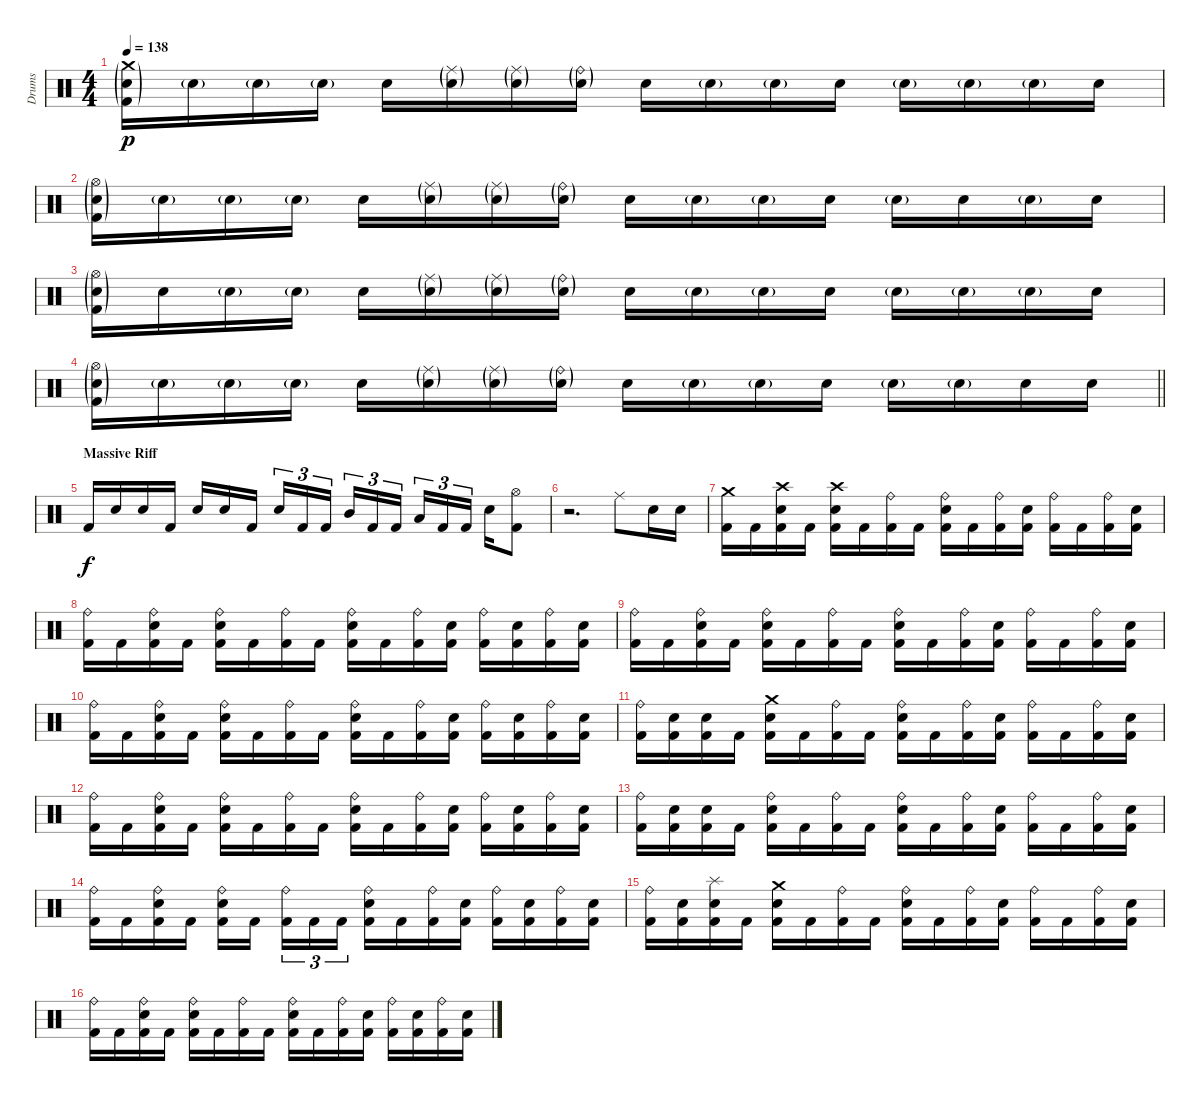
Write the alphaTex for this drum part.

\track ("Drums" "Drums") {instrument percussion}
\staff {score}
\articulation defaults
\ts (4 4)
\tempo 138
\clef neutral
\ks c
("Crash medium (hit)"{g} "Snare (hit) 2"{g} "Kick (hit) 2"{g}).16{dy p} "Snare (hit) 2"{g}.16 "Snare (hit) 2"{g}.16 "Snare (hit) 2"{g}.16 "Snare (hit) 2".16 ("Ride (middle)"{g} "Snare (hit) 2"{g}).16 ("Ride (middle)"{g} "Snare (hit) 2"{g}).16 ("Ride (bell)"{g} "Snare (hit) 2"{g}).16 "Snare (hit) 2".16 "Snare (hit) 2"{g}.16 "Snare (hit) 2"{g}.16 "Snare (hit) 2".16 "Snare (hit) 2"{g}.16 "Snare (hit) 2"{g}.16 "Snare (hit) 2"{g}.16 "Snare (hit) 2".16 |
("Hi-Hat (open)"{g} "Snare (hit) 2"{g} "Kick (hit) 2"{g}).16 "Snare (hit) 2"{g}.16 "Snare (hit) 2"{g}.16 "Snare (hit) 2"{g}.16 "Snare (hit) 2".16 ("Ride (middle)"{g} "Snare (hit) 2"{g}).16 ("Ride (middle)"{g} "Snare (hit) 2"{g}).16 ("Ride (bell)"{g} "Snare (hit) 2"{g}).16 "Snare (hit) 2".16 "Snare (hit) 2"{g}.16 "Snare (hit) 2"{g}.16 "Snare (hit) 2".16 "Snare (hit) 2"{g}.16 "Snare (hit) 2".16 "Snare (hit) 2"{g}.16 "Snare (hit) 2".16 |
("Hi-Hat (open)"{g} "Snare (hit) 2"{g} "Kick (hit) 2"{g}).16 "Snare (hit) 2".16 "Snare (hit) 2"{g}.16 "Snare (hit) 2"{g}.16 "Snare (hit) 2".16 ("Ride (middle)"{g} "Snare (hit) 2"{g}).16 ("Ride (middle)"{g} "Snare (hit) 2"{g}).16 ("Ride (bell)"{g} "Snare (hit) 2"{g}).16 "Snare (hit) 2".16 "Snare (hit) 2"{g}.16 "Snare (hit) 2"{g}.16 "Snare (hit) 2".16 "Snare (hit) 2"{g}.16 "Snare (hit) 2"{g}.16 "Snare (hit) 2"{g}.16 "Snare (hit) 2".16 |
\barLineRight lightlight
("Hi-Hat (open)"{g} "Snare (hit) 2"{g} "Kick (hit) 2"{g}).16 "Snare (hit) 2"{g}.16 "Snare (hit) 2"{g}.16 "Snare (hit) 2"{g}.16 "Snare (hit) 2".16 ("Ride (middle)"{g} "Snare (hit) 2"{g}).16 ("Ride (middle)"{g} "Snare (hit) 2"{g}).16 ("Ride (bell)"{g} "Snare (hit) 2"{g}).16 "Snare (hit) 2".16 "Snare (hit) 2"{g}.16 "Snare (hit) 2"{g}.16 "Snare (hit) 2".16 "Snare (hit) 2"{g}.16 "Snare (hit) 2"{g}.16 "Snare (hit) 2".16 "Snare (hit) 2".16 |
\section ("" "Massive Riff")
"Kick (hit) 2".16{dy f} "Snare (hit) 2".16 "Snare (hit) 2".16 "Kick (hit) 2".16 "Snare (hit) 2".16 "Snare (hit) 2".16 "Kick (hit) 2".16{beam splitsecondary} "Snare (hit) 2".16{tu (3 2)} "Kick (hit) 2".16{tu (3 2)} "Kick (hit) 2".16{tu (3 2) beam splitsecondary} "Mid Tom (hit)".16{tu (3 2)} "Kick (hit) 2".16{tu (3 2)} "Kick (hit) 2".16{tu (3 2) beam splitsecondary} "Low Tom (hit)".16{tu (3 2)} "Kick (hit) 2".16{tu (3 2)} "Kick (hit) 2".16{tu (3 2) beam splitsecondary} "Snare (hit) 2".16 ("Hi-Hat (open)" "Kick (hit) 2").8 |
r.2{d} "Ride (middle)".8 "Snare (hit) 2".16 "Snare (hit) 2".16 |
("Crash medium (hit)" "Kick (hit) 2").16 "Kick (hit) 2".16 ("Crash high (hit)" "Snare (hit) 2" "Kick (hit) 2").16 "Kick (hit) 2".16 ("Crash high (hit)" "Snare (hit) 2" "Kick (hit) 2").16 "Kick (hit) 2".16 ("Ride (bell)" "Kick (hit) 2").16 "Kick (hit) 2".16 ("Ride (bell)" "Snare (hit) 2" "Kick (hit) 2").16 "Kick (hit) 2".16 ("Ride (bell)" "Kick (hit) 2").16 ("Snare (hit) 2" "Kick (hit) 2").16 ("Ride (bell)" "Kick (hit) 2").16 "Kick (hit) 2".16 ("Ride (bell)" "Kick (hit) 2").16 ("Snare (hit) 2" "Kick (hit) 2").16 |
("Ride (bell)" "Kick (hit) 2").16 "Kick (hit) 2".16 ("Ride (bell)" "Snare (hit) 2" "Kick (hit) 2").16 "Kick (hit) 2".16 ("Ride (bell)" "Snare (hit) 2" "Kick (hit) 2").16 "Kick (hit) 2".16 ("Ride (bell)" "Kick (hit) 2").16 "Kick (hit) 2".16 ("Ride (bell)" "Snare (hit) 2" "Kick (hit) 2").16 "Kick (hit) 2".16 ("Ride (bell)" "Kick (hit) 2").16 ("Snare (hit) 2" "Kick (hit) 2").16 ("Ride (bell)" "Kick (hit) 2").16 ("Snare (hit) 2" "Kick (hit) 2").16 ("Ride (bell)" "Kick (hit) 2").16 ("Snare (hit) 2" "Kick (hit) 2").16 |
("Ride (bell)" "Kick (hit) 2").16 "Kick (hit) 2".16 ("Ride (bell)" "Snare (hit) 2" "Kick (hit) 2").16 "Kick (hit) 2".16 ("Ride (bell)" "Snare (hit) 2" "Kick (hit) 2").16 "Kick (hit) 2".16 ("Ride (bell)" "Kick (hit) 2").16 "Kick (hit) 2".16 ("Ride (bell)" "Snare (hit) 2" "Kick (hit) 2").16 "Kick (hit) 2".16 ("Ride (bell)" "Kick (hit) 2").16 ("Snare (hit) 2" "Kick (hit) 2").16 ("Ride (bell)" "Kick (hit) 2").16 "Kick (hit) 2".16 ("Ride (bell)" "Kick (hit) 2").16 ("Snare (hit) 2" "Kick (hit) 2").16 |
("Ride (bell)" "Kick (hit) 2").16 "Kick (hit) 2".16 ("Ride (bell)" "Snare (hit) 2" "Kick (hit) 2").16 "Kick (hit) 2".16 ("Ride (bell)" "Snare (hit) 2" "Kick (hit) 2").16 "Kick (hit) 2".16 ("Ride (bell)" "Kick (hit) 2").16 "Kick (hit) 2".16 ("Ride (bell)" "Snare (hit) 2" "Kick (hit) 2").16 "Kick (hit) 2".16 ("Ride (bell)" "Kick (hit) 2").16 ("Snare (hit) 2" "Kick (hit) 2").16 ("Ride (bell)" "Kick (hit) 2").16 ("Snare (hit) 2" "Kick (hit) 2").16 ("Ride (bell)" "Kick (hit) 2").16 ("Snare (hit) 2" "Kick (hit) 2").16 |
("Ride (bell)" "Kick (hit) 2").16 ("Snare (hit) 2" "Kick (hit) 2").16 ("Snare (hit) 2" "Kick (hit) 2").16 "Kick (hit) 2".16 ("Crash medium (hit)" "Snare (hit) 2" "Kick (hit) 2").16 "Kick (hit) 2".16 ("Ride (bell)" "Kick (hit) 2").16 "Kick (hit) 2".16 ("Ride (bell)" "Snare (hit) 2" "Kick (hit) 2").16 "Kick (hit) 2".16 ("Ride (bell)" "Kick (hit) 2").16 ("Snare (hit) 2" "Kick (hit) 2").16 ("Ride (bell)" "Kick (hit) 2").16 "Kick (hit) 2".16 ("Ride (bell)" "Kick (hit) 2").16 ("Snare (hit) 2" "Kick (hit) 2").16 |
("Ride (bell)" "Kick (hit) 2").16 "Kick (hit) 2".16 ("Ride (bell)" "Snare (hit) 2" "Kick (hit) 2").16 "Kick (hit) 2".16 ("Ride (bell)" "Snare (hit) 2" "Kick (hit) 2").16 "Kick (hit) 2".16 ("Ride (bell)" "Kick (hit) 2").16 "Kick (hit) 2".16 ("Ride (bell)" "Snare (hit) 2" "Kick (hit) 2").16 "Kick (hit) 2".16 ("Ride (bell)" "Kick (hit) 2").16 ("Snare (hit) 2" "Kick (hit) 2").16 ("Ride (bell)" "Kick (hit) 2").16 ("Snare (hit) 2" "Kick (hit) 2").16 ("Ride (bell)" "Kick (hit) 2").16 ("Snare (hit) 2" "Kick (hit) 2").16 |
("Ride (bell)" "Kick (hit) 2").16 ("Snare (hit) 2" "Kick (hit) 2").16 ("Snare (hit) 2" "Kick (hit) 2").16 "Kick (hit) 2".16 ("Ride (bell)" "Snare (hit) 2" "Kick (hit) 2").16 "Kick (hit) 2".16 ("Ride (bell)" "Kick (hit) 2").16 "Kick (hit) 2".16 ("Ride (bell)" "Snare (hit) 2" "Kick (hit) 2").16 "Kick (hit) 2".16 ("Ride (bell)" "Kick (hit) 2").16 ("Snare (hit) 2" "Kick (hit) 2").16 ("Ride (bell)" "Kick (hit) 2").16 "Kick (hit) 2".16 ("Ride (bell)" "Kick (hit) 2").16 ("Snare (hit) 2" "Kick (hit) 2").16 |
("Ride (bell)" "Kick (hit) 2").16 "Kick (hit) 2".16 ("Ride (bell)" "Snare (hit) 2" "Kick (hit) 2").16 "Kick (hit) 2".16 ("Ride (bell)" "Snare (hit) 2" "Kick (hit) 2").16 "Kick (hit) 2".16{beam splitsecondary} ("Ride (bell)" "Kick (hit) 2").16{tu (3 2)} "Kick (hit) 2".16{tu (3 2)} "Kick (hit) 2".16{tu (3 2)} ("Ride (bell)" "Snare (hit) 2" "Kick (hit) 2").16 "Kick (hit) 2".16 ("Ride (bell)" "Kick (hit) 2").16 ("Snare (hit) 2" "Kick (hit) 2").16 ("Ride (bell)" "Kick (hit) 2").16 ("Snare (hit) 2" "Kick (hit) 2").16 ("Ride (bell)" "Kick (hit) 2").16 ("Snare (hit) 2" "Kick (hit) 2").16 |
("Ride (bell)" "Kick (hit) 2").16 ("Snare (hit) 2" "Kick (hit) 2").16 ("Splash (hit)" "Snare (hit) 2" "Kick (hit) 2").16 "Kick (hit) 2".16 ("Crash medium (hit)" "Snare (hit) 2" "Kick (hit) 2").16 "Kick (hit) 2".16 ("Ride (bell)" "Kick (hit) 2").16 "Kick (hit) 2".16 ("Ride (bell)" "Snare (hit) 2" "Kick (hit) 2").16 "Kick (hit) 2".16 ("Ride (bell)" "Kick (hit) 2").16 ("Snare (hit) 2" "Kick (hit) 2").16 ("Ride (bell)" "Kick (hit) 2").16 "Kick (hit) 2".16 ("Ride (bell)" "Kick (hit) 2").16 ("Snare (hit) 2" "Kick (hit) 2").16 |
("Ride (bell)" "Kick (hit) 2").16 "Kick (hit) 2".16 ("Ride (bell)" "Snare (hit) 2" "Kick (hit) 2").16 "Kick (hit) 2".16 ("Ride (bell)" "Snare (hit) 2" "Kick (hit) 2").16 "Kick (hit) 2".16 ("Ride (bell)" "Kick (hit) 2").16 "Kick (hit) 2".16 ("Ride (bell)" "Snare (hit) 2" "Kick (hit) 2").16 "Kick (hit) 2".16 ("Ride (bell)" "Kick (hit) 2").16 ("Snare (hit) 2" "Kick (hit) 2").16 ("Ride (bell)" "Kick (hit) 2").16 ("Snare (hit) 2" "Kick (hit) 2").16 ("Ride (bell)" "Kick (hit) 2").16 ("Snare (hit) 2" "Kick (hit) 2").16
